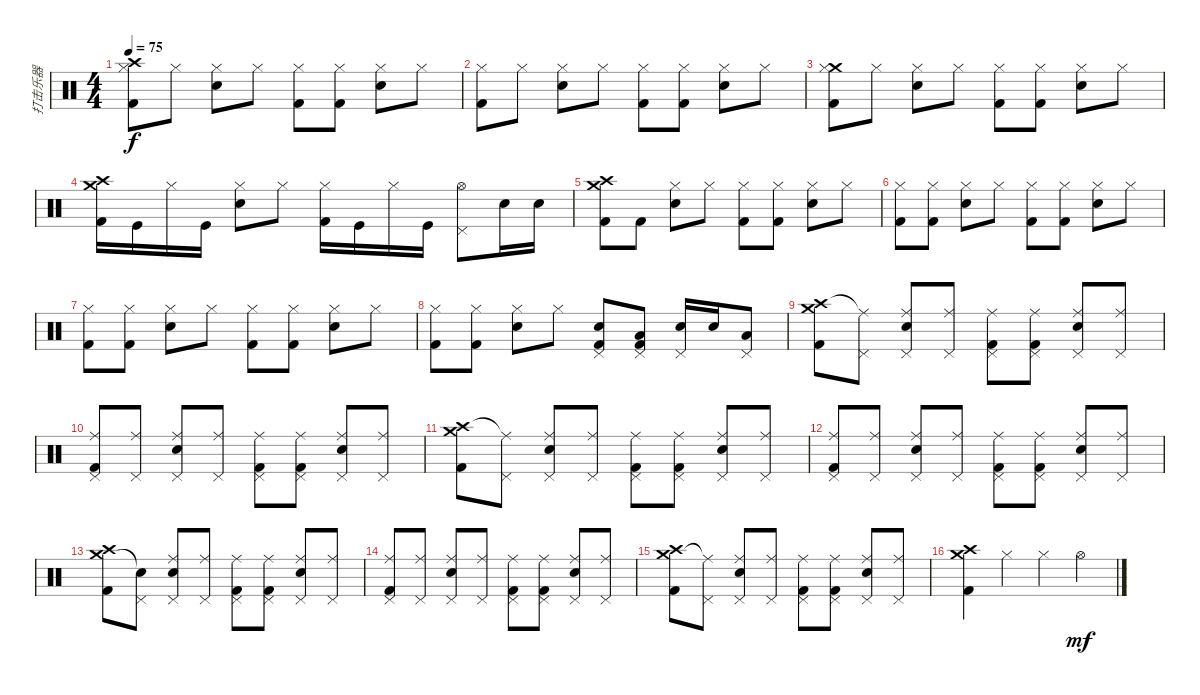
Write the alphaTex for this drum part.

\track ("打击乐器" "打击乐器") {instrument percussion}
\staff {score}
\articulation defaults
\ts (4 4)
\tempo 75
\clef neutral
\ks c
("Crash high (hit)" "Hi-Hat (closed)" "Kick (hit) 2").8{dy f} "Hi-Hat (closed)".8 ("Hi-Hat (closed)" "Electric Snare (hit)").8 "Hi-Hat (closed)".8 ("Hi-Hat (closed)" "Kick (hit) 2").8 ("Hi-Hat (closed)" "Kick (hit) 2").8 ("Hi-Hat (closed)" "Electric Snare (hit)").8 "Hi-Hat (closed)".8 |
("Hi-Hat (closed)" "Kick (hit) 2").8 "Hi-Hat (closed)".8 ("Hi-Hat (closed)" "Electric Snare (hit)").8 "Hi-Hat (closed)".8 ("Hi-Hat (closed)" "Kick (hit) 2").8 ("Hi-Hat (closed)" "Kick (hit) 2").8 ("Hi-Hat (closed)" "Electric Snare (hit)").8 "Hi-Hat (closed)".8 |
("Crash medium (hit)" "Hi-Hat (closed)" "Kick (hit) 2").8 "Hi-Hat (closed)".8 ("Hi-Hat (closed)" "Electric Snare (hit)").8 "Hi-Hat (closed)".8 ("Hi-Hat (closed)" "Kick (hit) 2").8 ("Hi-Hat (closed)" "Kick (hit) 2").8 ("Hi-Hat (closed)" "Electric Snare (hit)").8 "Hi-Hat (closed)".8 |
("Crash high (hit)" "Crash medium (hit)" "Kick (hit) 2").16 "Kick (hit)".16 "Hi-Hat (closed)".16 "Kick (hit)".16 ("Hi-Hat (closed)" "Electric Snare (hit)").8 "Hi-Hat (closed)".8 ("Hi-Hat (closed)" "Kick (hit) 2").16 "Kick (hit)".16 "Hi-Hat (closed)".16 "Kick (hit)".16 ("Hi-Hat (open)" "Pedal Hi-Hat (hit)").8 "Electric Snare (hit)".16 "Electric Snare (hit)".16 |
("Crash high (hit)" "Crash medium (hit)" "Kick (hit) 2").8 "Kick (hit) 2".8 ("Hi-Hat (closed)" "Electric Snare (hit)").8 "Hi-Hat (closed)".8 ("Hi-Hat (closed)" "Kick (hit) 2").8 ("Hi-Hat (closed)" "Kick (hit) 2").8 ("Hi-Hat (closed)" "Electric Snare (hit)").8 "Hi-Hat (closed)".8 |
("Hi-Hat (closed)" "Kick (hit) 2").8 ("Hi-Hat (closed)" "Kick (hit) 2").8 ("Hi-Hat (closed)" "Electric Snare (hit)").8 "Hi-Hat (closed)".8 ("Hi-Hat (closed)" "Kick (hit) 2").8 ("Hi-Hat (closed)" "Kick (hit) 2").8 ("Hi-Hat (closed)" "Electric Snare (hit)").8 "Hi-Hat (closed)".8 |
("Hi-Hat (closed)" "Kick (hit) 2").8 ("Hi-Hat (closed)" "Kick (hit) 2").8 ("Hi-Hat (closed)" "Electric Snare (hit)").8 "Hi-Hat (closed)".8 ("Hi-Hat (closed)" "Kick (hit) 2").8 ("Hi-Hat (closed)" "Kick (hit) 2").8 ("Hi-Hat (closed)" "Electric Snare (hit)").8 "Hi-Hat (closed)".8 |
("Hi-Hat (closed)" "Kick (hit) 2").8 ("Hi-Hat (closed)" "Kick (hit) 2").8 ("Hi-Hat (closed)" "Electric Snare (hit)").8 "Hi-Hat (closed)".8 ("Pedal Hi-Hat (hit)" "Electric Snare (hit)" "Kick (hit) 2").8 ("Pedal Hi-Hat (hit)" "Low Tom (hit)" "Kick (hit) 2").8 ("Pedal Hi-Hat (hit)" "Electric Snare (hit)").16 "Electric Snare (hit)".16 ("Pedal Hi-Hat (hit)" "Low Tom (hit)").8 |
("Crash high (hit)" "Crash medium (hit)" "Kick (hit) 2").8 ("Ride (middle)"{t} "Pedal Hi-Hat (hit)").8 ("Ride (middle)" "Pedal Hi-Hat (hit)" "Electric Snare (hit)").8 ("Ride (middle)" "Pedal Hi-Hat (hit)").8 ("Ride (middle)" "Pedal Hi-Hat (hit)" "Kick (hit) 2").8 ("Ride (middle)" "Pedal Hi-Hat (hit)" "Kick (hit) 2").8 ("Ride (middle)" "Pedal Hi-Hat (hit)" "Electric Snare (hit)").8 ("Ride (middle)" "Pedal Hi-Hat (hit)").8 |
("Ride (middle)" "Pedal Hi-Hat (hit)" "Kick (hit) 2").8 ("Ride (middle)" "Pedal Hi-Hat (hit)").8 ("Ride (middle)" "Pedal Hi-Hat (hit)" "Electric Snare (hit)").8 ("Ride (middle)" "Pedal Hi-Hat (hit)").8 ("Ride (middle)" "Pedal Hi-Hat (hit)" "Kick (hit) 2").8 ("Ride (middle)" "Pedal Hi-Hat (hit)" "Kick (hit) 2").8 ("Ride (middle)" "Pedal Hi-Hat (hit)" "Electric Snare (hit)").8 ("Ride (middle)" "Pedal Hi-Hat (hit)").8 |
("Crash high (hit)" "Crash medium (hit)" "Kick (hit) 2").8 ("Ride (middle)"{t} "Pedal Hi-Hat (hit)").8 ("Ride (middle)" "Pedal Hi-Hat (hit)" "Electric Snare (hit)").8 ("Ride (middle)" "Pedal Hi-Hat (hit)").8 ("Ride (middle)" "Pedal Hi-Hat (hit)" "Kick (hit) 2").8 ("Ride (middle)" "Pedal Hi-Hat (hit)" "Kick (hit) 2").8 ("Ride (middle)" "Pedal Hi-Hat (hit)" "Electric Snare (hit)").8 ("Ride (middle)" "Pedal Hi-Hat (hit)").8 |
("Ride (middle)" "Pedal Hi-Hat (hit)" "Kick (hit) 2").8 ("Ride (middle)" "Pedal Hi-Hat (hit)").8 ("Ride (middle)" "Pedal Hi-Hat (hit)" "Electric Snare (hit)").8 ("Ride (middle)" "Pedal Hi-Hat (hit)").8 ("Ride (middle)" "Pedal Hi-Hat (hit)" "Kick (hit) 2").8 ("Ride (middle)" "Pedal Hi-Hat (hit)" "Kick (hit) 2").8 ("Ride (middle)" "Pedal Hi-Hat (hit)" "Electric Snare (hit)").8 ("Ride (middle)" "Pedal Hi-Hat (hit)").8 |
("Crash medium (hit)" "Crash high (hit)" "Kick (hit) 2").8 ("Snare (hit)"{t} "Pedal Hi-Hat (hit)").8 ("Ride (middle)" "Pedal Hi-Hat (hit)" "Electric Snare (hit)").8 ("Ride (middle)" "Pedal Hi-Hat (hit)").8 ("Ride (middle)" "Pedal Hi-Hat (hit)" "Kick (hit) 2").8 ("Ride (middle)" "Pedal Hi-Hat (hit)" "Kick (hit) 2").8 ("Ride (middle)" "Pedal Hi-Hat (hit)" "Electric Snare (hit)").8 ("Ride (middle)" "Pedal Hi-Hat (hit)").8 |
("Ride (middle)" "Pedal Hi-Hat (hit)" "Kick (hit) 2").8 ("Ride (middle)" "Pedal Hi-Hat (hit)").8 ("Ride (middle)" "Pedal Hi-Hat (hit)" "Electric Snare (hit)").8 ("Ride (middle)" "Pedal Hi-Hat (hit)").8 ("Ride (middle)" "Pedal Hi-Hat (hit)" "Kick (hit) 2").8 ("Ride (middle)" "Pedal Hi-Hat (hit)" "Kick (hit) 2").8 ("Ride (middle)" "Pedal Hi-Hat (hit)" "Electric Snare (hit)").8 ("Ride (middle)" "Pedal Hi-Hat (hit)").8 |
("Crash medium (hit)" "Crash high (hit)" "Kick (hit) 2").8 ("Ride (middle)"{t} "Pedal Hi-Hat (hit)").8 ("Ride (middle)" "Pedal Hi-Hat (hit)" "Electric Snare (hit)").8 ("Ride (middle)" "Pedal Hi-Hat (hit)").8 ("Ride (middle)" "Pedal Hi-Hat (hit)" "Kick (hit) 2").8 ("Ride (middle)" "Pedal Hi-Hat (hit)" "Kick (hit) 2").8 ("Ride (middle)" "Pedal Hi-Hat (hit)" "Electric Snare (hit)").8 ("Ride (middle)" "Pedal Hi-Hat (hit)").8 |
("Crash medium (hit)" "Crash high (hit)" "Kick (hit) 2").4 "Hi-Hat (closed)".4 "Hi-Hat (closed)".4 "Hi-Hat (open)".4{dy mf}
